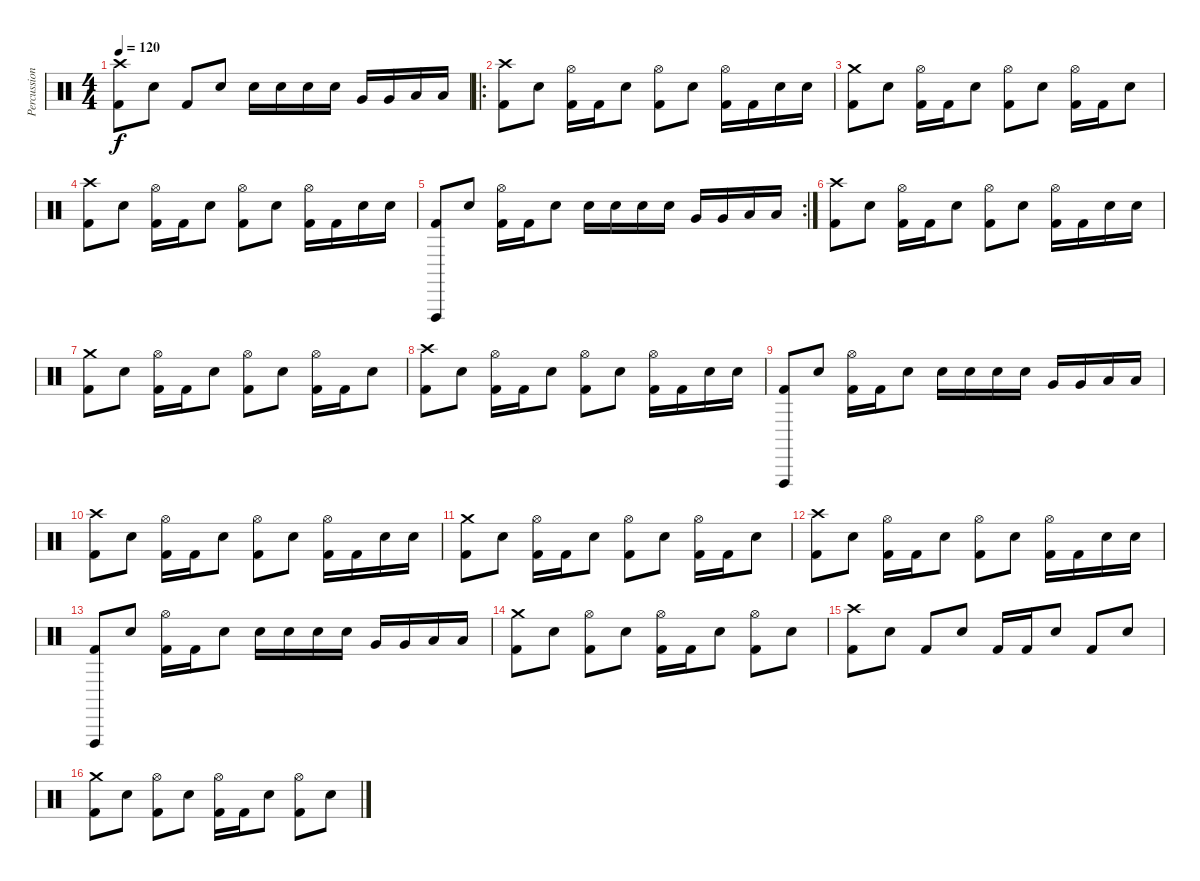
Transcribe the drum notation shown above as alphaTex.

\track ("Percussion" "Percussion") {instrument percussion}
\staff {score}
\articulation defaults
\ts (4 4)
\tempo 120
\clef neutral
\ks c
("Crash high (hit)" "Kick (hit) 2").8{dy f} "Snare (hit) 2".8 "Kick (hit) 2".8 "Snare (hit) 2".8 "Snare (hit) 2".16 "Snare (hit) 2".16 "Electric Snare (hit)".16 "Electric Snare (hit)".16 "Very Low Tom (hit)".16 "Very Low Tom (hit)".16 "Low Tom (hit)".16 "Low Tom (hit)".16 |
\ro
("Crash high (hit)" "Kick (hit) 2").8 "Snare (hit) 2".8 ("Hi-Hat (open)" "Kick (hit) 2").16 "Kick (hit) 2".16 "Snare (hit) 2".8 ("Hi-Hat (open)" "Kick (hit) 2").8 "Snare (hit) 2".8 ("Hi-Hat (open)" "Kick (hit) 2").16 "Kick (hit) 2".16 "Snare (hit) 2".16 "Snare (hit) 2".16 |
("Crash medium (hit)" "Kick (hit) 2").8 "Snare (hit) 2".8 ("Hi-Hat (open)" "Kick (hit) 2").16 "Kick (hit) 2".16 "Snare (hit) 2".8 ("Hi-Hat (open)" "Kick (hit) 2").8 "Snare (hit) 2".8 ("Hi-Hat (open)" "Kick (hit) 2").16 "Kick (hit) 2".16 "Snare (hit) 2".8 |
("Crash high (hit)" "Kick (hit) 2").8 "Snare (hit) 2".8 ("Hi-Hat (open)" "Kick (hit) 2").16 "Kick (hit) 2".16 "Snare (hit) 2".8 ("Hi-Hat (open)" "Kick (hit) 2").8 "Snare (hit) 2".8 ("Hi-Hat (open)" "Kick (hit) 2").16 "Kick (hit) 2".16 "Snare (hit) 2".16 "Snare (hit) 2".16 |
\rc 2
("Vibraslap (hit)" "Kick (hit) 2").8 "Snare (hit) 2".8 ("Hi-Hat (open)" "Kick (hit) 2").16 "Kick (hit) 2".16 "Snare (hit) 2".8 "Snare (hit) 2".16 "Snare (hit) 2".16 "Electric Snare (hit)".16 "Electric Snare (hit)".16 "Very Low Tom (hit)".16 "Very Low Tom (hit)".16 "Low Tom (hit)".16 "Low Tom (hit)".16 |
("Crash high (hit)" "Kick (hit) 2").8 "Snare (hit) 2".8 ("Hi-Hat (open)" "Kick (hit) 2").16 "Kick (hit) 2".16 "Snare (hit) 2".8 ("Hi-Hat (open)" "Kick (hit) 2").8 "Snare (hit) 2".8 ("Hi-Hat (open)" "Kick (hit) 2").16 "Kick (hit) 2".16 "Snare (hit) 2".16 "Snare (hit) 2".16 |
("Crash medium (hit)" "Kick (hit) 2").8 "Snare (hit) 2".8 ("Hi-Hat (open)" "Kick (hit) 2").16 "Kick (hit) 2".16 "Snare (hit) 2".8 ("Hi-Hat (open)" "Kick (hit) 2").8 "Snare (hit) 2".8 ("Hi-Hat (open)" "Kick (hit) 2").16 "Kick (hit) 2".16 "Snare (hit) 2".8 |
("Crash high (hit)" "Kick (hit) 2").8 "Snare (hit) 2".8 ("Hi-Hat (open)" "Kick (hit) 2").16 "Kick (hit) 2".16 "Snare (hit) 2".8 ("Hi-Hat (open)" "Kick (hit) 2").8 "Snare (hit) 2".8 ("Hi-Hat (open)" "Kick (hit) 2").16 "Kick (hit) 2".16 "Snare (hit) 2".16 "Snare (hit) 2".16 |
("Vibraslap (hit)" "Kick (hit) 2").8 "Snare (hit) 2".8 ("Hi-Hat (open)" "Kick (hit) 2").16 "Kick (hit) 2".16 "Snare (hit) 2".8 "Snare (hit) 2".16 "Snare (hit) 2".16 "Electric Snare (hit)".16 "Electric Snare (hit)".16 "Very Low Tom (hit)".16 "Very Low Tom (hit)".16 "Low Tom (hit)".16 "Low Tom (hit)".16 |
("Crash high (hit)" "Kick (hit) 2").8 "Snare (hit) 2".8 ("Hi-Hat (open)" "Kick (hit) 2").16 "Kick (hit) 2".16 "Snare (hit) 2".8 ("Hi-Hat (open)" "Kick (hit) 2").8 "Snare (hit) 2".8 ("Hi-Hat (open)" "Kick (hit) 2").16 "Kick (hit) 2".16 "Snare (hit) 2".16 "Snare (hit) 2".16 |
("Crash medium (hit)" "Kick (hit) 2").8 "Snare (hit) 2".8 ("Hi-Hat (open)" "Kick (hit) 2").16 "Kick (hit) 2".16 "Snare (hit) 2".8 ("Hi-Hat (open)" "Kick (hit) 2").8 "Snare (hit) 2".8 ("Hi-Hat (open)" "Kick (hit) 2").16 "Kick (hit) 2".16 "Snare (hit) 2".8 |
("Crash high (hit)" "Kick (hit) 2").8 "Snare (hit) 2".8 ("Hi-Hat (open)" "Kick (hit) 2").16 "Kick (hit) 2".16 "Snare (hit) 2".8 ("Hi-Hat (open)" "Kick (hit) 2").8 "Snare (hit) 2".8 ("Hi-Hat (open)" "Kick (hit) 2").16 "Kick (hit) 2".16 "Snare (hit) 2".16 "Snare (hit) 2".16 |
("Vibraslap (hit)" "Kick (hit) 2").8 "Snare (hit) 2".8 ("Hi-Hat (open)" "Kick (hit) 2").16 "Kick (hit) 2".16 "Snare (hit) 2".8 "Snare (hit) 2".16 "Snare (hit) 2".16 "Electric Snare (hit)".16 "Electric Snare (hit)".16 "Very Low Tom (hit)".16 "Very Low Tom (hit)".16 "Low Tom (hit)".16 "Low Tom (hit)".16 |
("Crash medium (hit)" "Kick (hit) 2").8 "Snare (hit) 2".8 ("Hi-Hat (open)" "Kick (hit) 2").8 "Snare (hit) 2".8 ("Hi-Hat (open)" "Kick (hit) 2").16 "Kick (hit) 2".16 "Snare (hit) 2".8 ("Hi-Hat (open)" "Kick (hit) 2").8 "Snare (hit) 2".8 |
("Crash high (hit)" "Kick (hit) 2").8 "Snare (hit) 2".8 "Kick (hit) 2".8 "Snare (hit) 2".8 "Kick (hit) 2".16 "Kick (hit) 2".16 "Snare (hit) 2".8 "Kick (hit) 2".8 "Snare (hit) 2".8 |
("Crash medium (hit)" "Kick (hit) 2").8 "Snare (hit) 2".8 ("Hi-Hat (open)" "Kick (hit) 2").8 "Snare (hit) 2".8 ("Hi-Hat (open)" "Kick (hit) 2").16 "Kick (hit) 2".16 "Snare (hit) 2".8 ("Hi-Hat (open)" "Kick (hit) 2").8 "Snare (hit) 2".8
